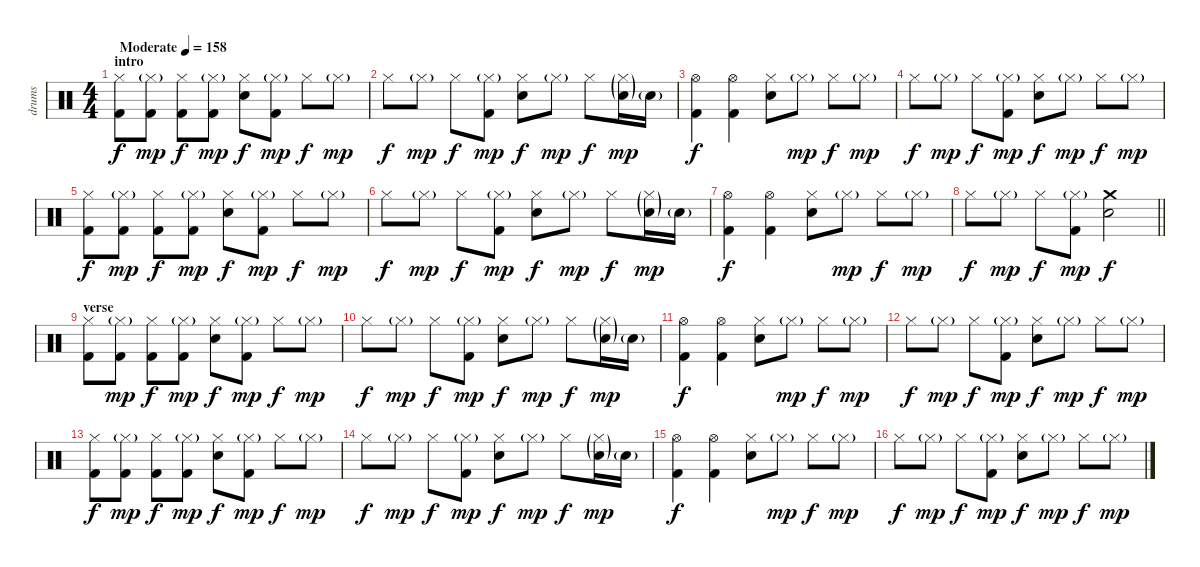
\track ("drums" "drums") {instrument percussion}
\staff {score}
\articulation defaults
\ts (4 4)
\section ("" "intro")
\tempo (158 "Moderate")
\clef neutral
\ks c
("Hi-Hat (closed)" "Kick (hit) 2").8{dy f} ("Hi-Hat (closed)"{g} "Kick (hit) 2").8{dy mp} ("Hi-Hat (closed)" "Kick (hit) 2").8{dy f} ("Hi-Hat (closed)"{g} "Kick (hit) 2").8{dy mp} ("Hi-Hat (closed)" "Electric Snare (hit)").8{dy f} ("Hi-Hat (closed)"{g} "Kick (hit) 2").8{dy mp} "Hi-Hat (closed)".8{dy f} "Hi-Hat (closed)"{g}.8{dy mp} |
"Hi-Hat (closed)".8{dy f} "Hi-Hat (closed)"{g}.8{dy mp} "Hi-Hat (closed)".8{dy f} ("Hi-Hat (closed)"{g} "Kick (hit) 2").8{dy mp} ("Hi-Hat (closed)" "Electric Snare (hit)").8{dy f} "Hi-Hat (closed)"{g}.8{dy mp} "Hi-Hat (closed)".8{dy f} ("Hi-Hat (closed)"{g} "Electric Snare (hit)"{g}).16{dy mp} "Electric Snare (hit)"{g}.16 |
("Hi-Hat (open)" "Kick (hit) 2").4{dy f} ("Hi-Hat (open)" "Kick (hit) 2").4 ("Hi-Hat (closed)" "Electric Snare (hit)").8 "Hi-Hat (closed)"{g}.8{dy mp} "Hi-Hat (closed)".8{dy f} "Hi-Hat (closed)"{g}.8{dy mp} |
"Hi-Hat (closed)".8{dy f} "Hi-Hat (closed)"{g}.8{dy mp} "Hi-Hat (closed)".8{dy f} ("Hi-Hat (closed)"{g} "Kick (hit) 2").8{dy mp} ("Hi-Hat (closed)" "Electric Snare (hit)").8{dy f} "Hi-Hat (closed)"{g}.8{dy mp} "Hi-Hat (closed)".8{dy f} "Hi-Hat (closed)"{g}.8{dy mp} |
("Hi-Hat (closed)" "Kick (hit) 2").8{dy f} ("Hi-Hat (closed)"{g} "Kick (hit) 2").8{dy mp} ("Hi-Hat (closed)" "Kick (hit) 2").8{dy f} ("Hi-Hat (closed)"{g} "Kick (hit) 2").8{dy mp} ("Hi-Hat (closed)" "Electric Snare (hit)").8{dy f} ("Hi-Hat (closed)"{g} "Kick (hit) 2").8{dy mp} "Hi-Hat (closed)".8{dy f} "Hi-Hat (closed)"{g}.8{dy mp} |
"Hi-Hat (closed)".8{dy f} "Hi-Hat (closed)"{g}.8{dy mp} "Hi-Hat (closed)".8{dy f} ("Hi-Hat (closed)"{g} "Kick (hit) 2").8{dy mp} ("Hi-Hat (closed)" "Electric Snare (hit)").8{dy f} "Hi-Hat (closed)"{g}.8{dy mp} "Hi-Hat (closed)".8{dy f} ("Hi-Hat (closed)"{g} "Electric Snare (hit)"{g}).16{dy mp} "Electric Snare (hit)"{g}.16 |
("Hi-Hat (open)" "Kick (hit) 2").4{dy f} ("Hi-Hat (open)" "Kick (hit) 2").4 ("Hi-Hat (closed)" "Electric Snare (hit)").8 "Hi-Hat (closed)"{g}.8{dy mp} "Hi-Hat (closed)".8{dy f} "Hi-Hat (closed)"{g}.8{dy mp} |
\barLineRight lightlight "Hi-Hat (closed)".8{dy f} "Hi-Hat (closed)"{g}.8{dy mp} "Hi-Hat (closed)".8{dy f}
("Hi-Hat (closed)"{g} "Kick (hit) 2").8{dy mp} ("Crash medium (hit)" "Electric Snare (hit)").2{dy f} |
\section ("" "verse")
("Hi-Hat (closed)" "Kick (hit) 2").8 ("Hi-Hat (closed)"{g} "Kick (hit) 2").8{dy mp} ("Hi-Hat (closed)" "Kick (hit) 2").8{dy f} ("Hi-Hat (closed)"{g} "Kick (hit) 2").8{dy mp} ("Hi-Hat (closed)" "Electric Snare (hit)").8{dy f} ("Hi-Hat (closed)"{g} "Kick (hit) 2").8{dy mp} "Hi-Hat (closed)".8{dy f} "Hi-Hat (closed)"{g}.8{dy mp} |
"Hi-Hat (closed)".8{dy f} "Hi-Hat (closed)"{g}.8{dy mp} "Hi-Hat (closed)".8{dy f} ("Hi-Hat (closed)"{g} "Kick (hit) 2").8{dy mp} ("Hi-Hat (closed)" "Electric Snare (hit)").8{dy f} "Hi-Hat (closed)"{g}.8{dy mp} "Hi-Hat (closed)".8{dy f} ("Hi-Hat (closed)"{g} "Electric Snare (hit)"{g}).16{dy mp} "Electric Snare (hit)"{g}.16 |
("Hi-Hat (open)" "Kick (hit) 2").4{dy f} ("Hi-Hat (open)" "Kick (hit) 2").4 ("Hi-Hat (closed)" "Electric Snare (hit)").8 "Hi-Hat (closed)"{g}.8{dy mp} "Hi-Hat (closed)".8{dy f} "Hi-Hat (closed)"{g}.8{dy mp} |
"Hi-Hat (closed)".8{dy f} "Hi-Hat (closed)"{g}.8{dy mp} "Hi-Hat (closed)".8{dy f} ("Hi-Hat (closed)"{g} "Kick (hit) 2").8{dy mp} ("Hi-Hat (closed)" "Electric Snare (hit)").8{dy f} "Hi-Hat (closed)"{g}.8{dy mp} "Hi-Hat (closed)".8{dy f} "Hi-Hat (closed)"{g}.8{dy mp} |
("Hi-Hat (closed)" "Kick (hit) 2").8{dy f} ("Hi-Hat (closed)"{g} "Kick (hit) 2").8{dy mp} ("Hi-Hat (closed)" "Kick (hit) 2").8{dy f} ("Hi-Hat (closed)"{g} "Kick (hit) 2").8{dy mp} ("Hi-Hat (closed)" "Electric Snare (hit)").8{dy f} ("Hi-Hat (closed)"{g} "Kick (hit) 2").8{dy mp} "Hi-Hat (closed)".8{dy f} "Hi-Hat (closed)"{g}.8{dy mp} |
"Hi-Hat (closed)".8{dy f} "Hi-Hat (closed)"{g}.8{dy mp} "Hi-Hat (closed)".8{dy f} ("Hi-Hat (closed)"{g} "Kick (hit) 2").8{dy mp} ("Hi-Hat (closed)" "Electric Snare (hit)").8{dy f} "Hi-Hat (closed)"{g}.8{dy mp} "Hi-Hat (closed)".8{dy f} ("Hi-Hat (closed)"{g} "Electric Snare (hit)"{g}).16{dy mp} "Electric Snare (hit)"{g}.16 |
("Hi-Hat (open)" "Kick (hit) 2").4{dy f} ("Hi-Hat (open)" "Kick (hit) 2").4 ("Hi-Hat (closed)" "Electric Snare (hit)").8 "Hi-Hat (closed)"{g}.8{dy mp} "Hi-Hat (closed)".8{dy f} "Hi-Hat (closed)"{g}.8{dy mp} |
"Hi-Hat (closed)".8{dy f} "Hi-Hat (closed)"{g}.8{dy mp} "Hi-Hat (closed)".8{dy f} ("Hi-Hat (closed)"{g} "Kick (hit) 2").8{dy mp} ("Hi-Hat (closed)" "Electric Snare (hit)").8{dy f} "Hi-Hat (closed)"{g}.8{dy mp} "Hi-Hat (closed)".8{dy f} "Hi-Hat (closed)"{g}.8{dy mp}
